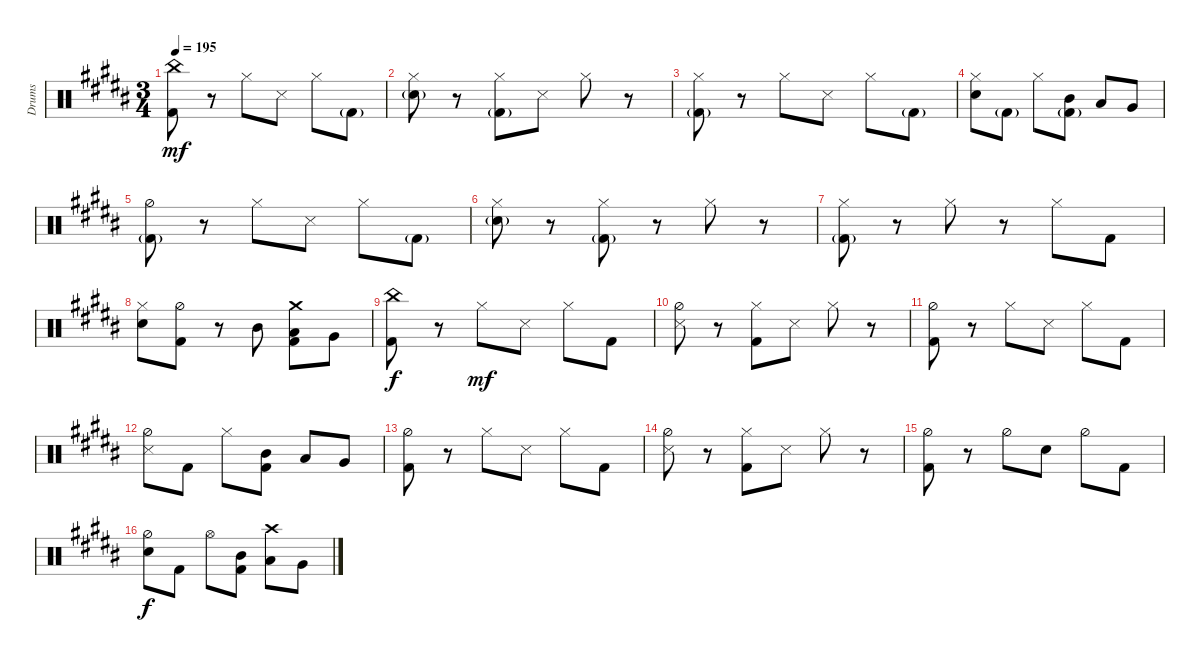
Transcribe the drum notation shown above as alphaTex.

\bracketExtendMode groupsimilarinstruments
\otherSystemsTrackNameOrientation horizontal
\track ("Drumkit" "Drums") {instrument percussion}
\staff {score}
\articulation defaults
\ts (3 4)
\tempo 195
\clef neutral
\ks b
("Kick (hit) 2"{acc bb} "China (hit)"{acc bb}).8{dy mf beam Down} r.8{beam Down} "Hi-Hat (closed)"{acc bb}.8{beam Down} "Snare (side stick) 3"{acc bb}.8{beam Down} "Hi-Hat (closed)"{acc bb}.8{beam Down} "Kick (hit) 2"{g acc bb}.8{beam Down} |
("Snare (hit) 2"{g acc bb} "Hi-Hat (closed)"{acc bb}).8{beam Down} r.8{beam Down} ("Kick (hit) 2"{g acc bb} "Hi-Hat (closed)"{acc bb}).8{beam Down} "Snare (side stick) 3"{acc bb}.8{beam Down} "Hi-Hat (closed)"{acc bb}.8{beam Down} r.8{beam Down} |
("Kick (hit) 2"{g acc bb} "Hi-Hat (closed)"{acc bb}).8{beam Down} r.8{beam Down} "Hi-Hat (closed)"{acc bb}.8{beam Down} "Snare (side stick) 3"{acc bb}.8{beam Down} "Hi-Hat (closed)"{acc bb}.8{beam Down} "Kick (hit) 2"{g acc bb}.8{beam Down} |
("Snare (hit) 2"{acc bb} "Hi-Hat (closed)"{acc bb}).8{beam Down} "Kick (hit) 2"{g acc bb}.8{beam Down} "Hi-Hat (closed)"{acc bb}.8{beam Down} ("Mid Tom (hit)"{acc bb} "Kick (hit) 2"{g acc bb}).8{beam Down} "Low Tom (hit)"{acc bb}.8{beam Up} "Very Low Tom (hit)"{acc bb}.8{beam Up} |
("Kick (hit) 2"{g acc bb} "Hi-Hat (half)"{acc bb}).8{beam Down} r.8{beam Down} "Hi-Hat (closed)"{acc bb}.8{beam Down} "Snare (side stick) 3"{acc bb}.8{beam Down} "Hi-Hat (closed)"{acc bb}.8{beam Down} "Kick (hit) 2"{g acc bb}.8{beam Down} |
("Snare (hit) 2"{g acc bb} "Hi-Hat (closed)"{acc bb}).8{beam Down} r.8{beam Down} ("Kick (hit) 2"{g acc bb} "Hi-Hat (closed)"{acc bb}).8{beam Down} r.8{beam Down} "Hi-Hat (closed)"{acc bb}.8{beam Down} r.8{beam Down} |
("Kick (hit) 2"{g acc bb} "Hi-Hat (closed)"{acc bb}).8{beam Down} r.8{beam Down} "Hi-Hat (closed)"{acc bb}.8{beam Down} r.8{beam Down} "Hi-Hat (closed)"{acc bb}.8{beam Down} "Kick (hit) 2"{acc bb}.8{beam Down} |
("Snare (hit) 2"{acc bb} "Hi-Hat (closed)"{acc bb}).8{beam Down} ("Kick (hit) 2"{acc bb} "Hi-Hat (half)"{acc bb}).8{beam Down} r.8{beam Down} "Mid Tom (hit)"{acc bb}.8{beam Down} ("Low Tom (hit)"{acc bb} "Crash medium (hit)"{acc bb} "Kick (hit) 2"{acc bb}).8{beam Down} "Very Low Tom (hit)"{acc bb}.8{beam Down} |
("Kick (hit) 2"{acc bb} "China (hit)"{acc bb}).8{dy f beam Down} r.8{beam Down} "Hi-Hat (closed)"{acc bb}.8{dy mf beam Down} "Snare (side stick) 3"{acc bb}.8{beam Down} "Hi-Hat (closed)"{acc bb}.8{beam Down} "Kick (hit) 2"{acc bb}.8{beam Down} |
("Snare (side stick) 3"{acc bb} "Hi-Hat (half)"{acc bb}).8{beam Down} r.8{beam Down} ("Kick (hit) 2"{acc bb} "Hi-Hat (closed)"{acc bb}).8{beam Down} "Snare (side stick) 3"{acc bb}.8{beam Down} "Hi-Hat (closed)"{acc bb}.8{beam Down} r.8{beam Down} |
("Kick (hit) 2"{acc bb} "Hi-Hat (half)"{acc bb}).8{beam Down} r.8{beam Down} "Hi-Hat (closed)"{acc bb}.8{beam Down} "Snare (side stick) 3"{acc bb}.8{beam Down} "Hi-Hat (closed)"{acc bb}.8{beam Down} "Kick (hit) 2"{acc bb}.8{beam Down} |
("Snare (side stick) 3"{acc bb} "Hi-Hat (half)"{acc bb}).8{beam Down} "Kick (hit) 2"{acc bb}.8{beam Down} "Hi-Hat (closed)"{acc bb}.8{beam Down} ("Mid Tom (hit)"{acc bb} "Kick (hit) 2"{acc bb}).8{beam Down} "Low Tom (hit)"{acc bb}.8{beam Up} "Very Low Tom (hit)"{acc bb}.8{beam Up} |
("Kick (hit) 2"{acc bb} "Hi-Hat (half)"{acc bb}).8{beam Down} r.8{beam Down} "Hi-Hat (closed)"{acc bb}.8{beam Down} "Snare (side stick) 3"{acc bb}.8{beam Down} "Hi-Hat (closed)"{acc bb}.8{beam Down} "Kick (hit) 2"{acc bb}.8{beam Down} |
("Snare (side stick) 3"{acc bb} "Hi-Hat (half)"{acc bb}).8{beam Down} r.8{beam Down} ("Kick (hit) 2"{acc bb} "Hi-Hat (closed)"{acc bb}).8{beam Down} "Snare (side stick) 3"{acc bb}.8{beam Down} "Hi-Hat (closed)"{acc bb}.8{beam Down} r.8{beam Down} |
("Kick (hit) 2"{acc bb} "Hi-Hat (half)"{acc bb}).8{beam Down} r.8{beam Down} "Hi-Hat (half)"{acc bb}.8{beam Down} "Snare (hit) 2"{acc bb}.8{beam Down} "Hi-Hat (half)"{acc bb}.8{beam Down} "Kick (hit) 2"{acc bb}.8{beam Down} |
("Snare (hit) 2"{acc bb} "Hi-Hat (half)"{acc bb}).8{dy f beam Down} "Kick (hit) 2"{acc bb}.8{beam Down} "Hi-Hat (open)"{acc bb}.8{beam Down} ("Mid Tom (hit)"{acc bb} "Kick (hit) 2"{acc bb}).8{beam Down} ("Low Tom (hit)"{acc bb} "Crash high (hit)"{acc bb}).8{beam Down} "Very Low Tom (hit)"{acc bb}.8{beam Down}
